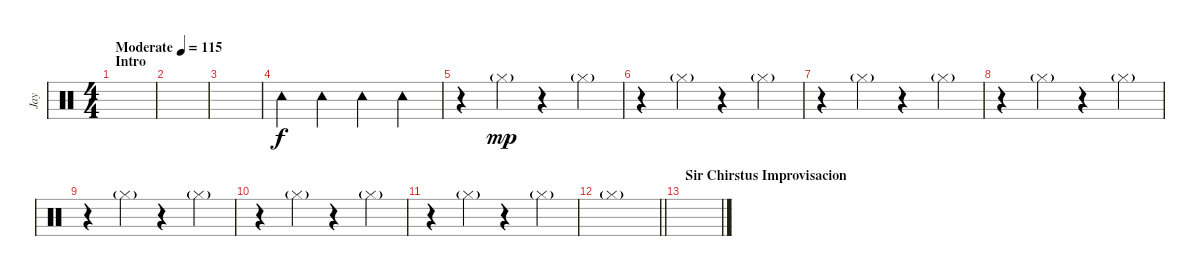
\track ("Jay" "Jay") {instrument percussion}
\staff {score}
\articulation defaults
\ts (4 4)
\section ("" "Intro")
\tempo (115 "Moderate")
\clef neutral
\ks c
|
|
|
"Tambourine (hit)".4 "Tambourine (hit)".4 "Tambourine (hit)".4 "Tambourine (hit)".4 |
r.4 "Hi-Hat (closed)"{g}.4{dy mp} r.4 "Hi-Hat (closed)"{g}.4 |
r.4 "Hi-Hat (closed)"{g}.4 r.4 "Hi-Hat (closed)"{g}.4 |
r.4 "Hi-Hat (closed)"{g}.4 r.4 "Hi-Hat (closed)"{g}.4 |
r.4 "Hi-Hat (closed)"{g}.4 r.4 "Hi-Hat (closed)"{g}.4 |
r.4 "Hi-Hat (closed)"{g}.4 r.4 "Hi-Hat (closed)"{g}.4 |
r.4 "Hi-Hat (closed)"{g}.4 r.4 "Hi-Hat (closed)"{g}.4 |
r.4 "Hi-Hat (closed)"{g}.4 r.4 "Hi-Hat (closed)"{g}.4 |
\barLineRight lightlight "Hi-Hat (closed)"{g}.1
|
\section ("" "Sir Chirstus Improvisacion")
